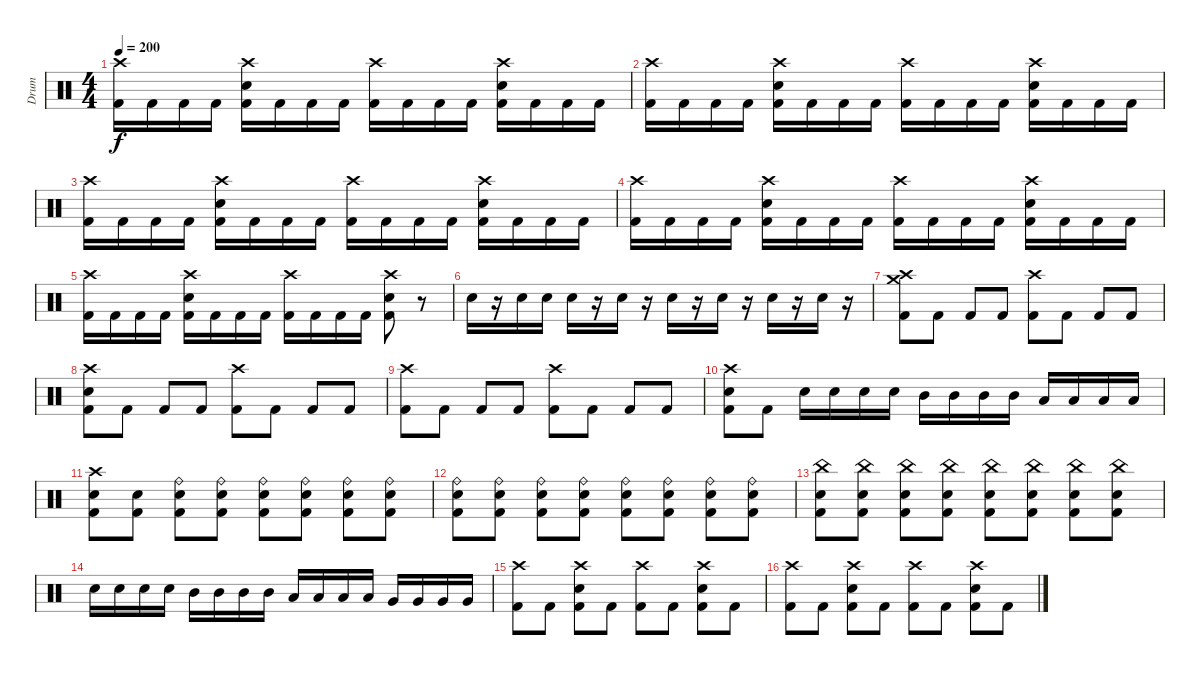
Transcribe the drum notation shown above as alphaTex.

\track ("Drum" "Drum") {instrument percussion}
\staff {score}
\articulation defaults
\ts (4 4)
\tempo 200
\clef neutral
\ks c
("Crash high (hit)" "Kick (hit) 2").16{dy f} "Kick (hit) 2".16 "Kick (hit) 2".16 "Kick (hit) 2".16 ("Crash high (hit)" "Snare (hit) 2" "Kick (hit) 2").16 "Kick (hit) 2".16 "Kick (hit) 2".16 "Kick (hit) 2".16 ("Crash high (hit)" "Kick (hit) 2").16 "Kick (hit) 2".16 "Kick (hit) 2".16 "Kick (hit) 2".16 ("Crash high (hit)" "Snare (hit) 2" "Kick (hit) 2").16 "Kick (hit) 2".16 "Kick (hit) 2".16 "Kick (hit) 2".16 |
("Crash high (hit)" "Kick (hit) 2").16 "Kick (hit) 2".16 "Kick (hit) 2".16 "Kick (hit) 2".16 ("Crash high (hit)" "Snare (hit) 2" "Kick (hit) 2").16 "Kick (hit) 2".16 "Kick (hit) 2".16 "Kick (hit) 2".16 ("Crash high (hit)" "Kick (hit) 2").16 "Kick (hit) 2".16 "Kick (hit) 2".16 "Kick (hit) 2".16 ("Crash high (hit)" "Snare (hit) 2" "Kick (hit) 2").16 "Kick (hit) 2".16 "Kick (hit) 2".16 "Kick (hit) 2".16 |
("Crash high (hit)" "Kick (hit) 2").16 "Kick (hit) 2".16 "Kick (hit) 2".16 "Kick (hit) 2".16 ("Crash high (hit)" "Snare (hit) 2" "Kick (hit) 2").16 "Kick (hit) 2".16 "Kick (hit) 2".16 "Kick (hit) 2".16 ("Crash high (hit)" "Kick (hit) 2").16 "Kick (hit) 2".16 "Kick (hit) 2".16 "Kick (hit) 2".16 ("Crash high (hit)" "Snare (hit) 2" "Kick (hit) 2").16 "Kick (hit) 2".16 "Kick (hit) 2".16 "Kick (hit) 2".16 |
("Crash high (hit)" "Kick (hit) 2").16 "Kick (hit) 2".16 "Kick (hit) 2".16 "Kick (hit) 2".16 ("Crash high (hit)" "Snare (hit) 2" "Kick (hit) 2").16 "Kick (hit) 2".16 "Kick (hit) 2".16 "Kick (hit) 2".16 ("Crash high (hit)" "Kick (hit) 2").16 "Kick (hit) 2".16 "Kick (hit) 2".16 "Kick (hit) 2".16 ("Crash high (hit)" "Snare (hit) 2" "Kick (hit) 2").16 "Kick (hit) 2".16 "Kick (hit) 2".16 "Kick (hit) 2".16 |
("Crash high (hit)" "Kick (hit) 2").16 "Kick (hit) 2".16 "Kick (hit) 2".16 "Kick (hit) 2".16 ("Crash high (hit)" "Snare (hit) 2" "Kick (hit) 2").16 "Kick (hit) 2".16 "Kick (hit) 2".16 "Kick (hit) 2".16 ("Crash high (hit)" "Kick (hit) 2").16 "Kick (hit) 2".16 "Kick (hit) 2".16 "Kick (hit) 2".16 ("Crash high (hit)" "Snare (hit) 2" "Kick (hit) 2").8 r.8 |
"Snare (hit) 2".16 r.16 "Snare (hit) 2".16 "Snare (hit) 2".16 "Snare (hit) 2".16 r.16 "Snare (hit) 2".16 r.16 "Snare (hit) 2".16 r.16 "Snare (hit) 2".16 r.16 "Snare (hit) 2".16 r.16 "Snare (hit) 2".16 r.16 |
("Crash medium (hit)" "Crash high (hit)" "Kick (hit) 2").8 "Kick (hit) 2".8 "Kick (hit) 2".8 "Kick (hit) 2".8 ("Crash high (hit)" "Kick (hit) 2").8 "Kick (hit) 2".8 "Kick (hit) 2".8 "Kick (hit) 2".8 |
("Crash high (hit)" "Snare (hit) 2" "Kick (hit) 2").8 "Kick (hit) 2".8 "Kick (hit) 2".8 "Kick (hit) 2".8 ("Crash high (hit)" "Kick (hit) 2").8 "Kick (hit) 2".8 "Kick (hit) 2".8 "Kick (hit) 2".8 |
("Crash high (hit)" "Kick (hit) 2").8 "Kick (hit) 2".8 "Kick (hit) 2".8 "Kick (hit) 2".8 ("Crash high (hit)" "Kick (hit) 2").8 "Kick (hit) 2".8 "Kick (hit) 2".8 "Kick (hit) 2".8 |
("Crash high (hit)" "Snare (hit) 2" "Kick (hit) 2").8 "Kick (hit) 2".8 "Snare (hit) 2".16 "Snare (hit) 2".16 "Snare (hit) 2".16 "Snare (hit) 2".16 "Mid Tom (hit)".16 "Mid Tom (hit)".16 "Mid Tom (hit)".16 "Mid Tom (hit)".16 "Low Tom (hit)".16 "Low Tom (hit)".16 "Low Tom (hit)".16 "Low Tom (hit)".16 |
("Crash high (hit)" "Snare (hit) 2" "Kick (hit) 2").8 ("Snare (hit) 2" "Kick (hit) 2").8 ("Ride (bell)" "Snare (hit) 2" "Kick (hit) 2").8 ("Ride (bell)" "Snare (hit) 2" "Kick (hit) 2").8 ("Ride (bell)" "Snare (hit) 2" "Kick (hit) 2").8 ("Ride (bell)" "Snare (hit) 2" "Kick (hit) 2").8 ("Ride (bell)" "Snare (hit) 2" "Kick (hit) 2").8 ("Ride (bell)" "Snare (hit) 2" "Kick (hit) 2").8 |
("Ride (bell)" "Snare (hit) 2" "Kick (hit) 2").8 ("Ride (bell)" "Snare (hit) 2" "Kick (hit) 2").8 ("Ride (bell)" "Snare (hit) 2" "Kick (hit) 2").8 ("Ride (bell)" "Snare (hit) 2" "Kick (hit) 2").8 ("Ride (bell)" "Snare (hit) 2" "Kick (hit) 2").8 ("Ride (bell)" "Snare (hit) 2" "Kick (hit) 2").8 ("Ride (bell)" "Snare (hit) 2" "Kick (hit) 2").8 ("Ride (bell)" "Snare (hit) 2" "Kick (hit) 2").8 |
("China (hit)" "Snare (hit) 2" "Kick (hit) 2").8 ("China (hit)" "Snare (hit) 2" "Kick (hit) 2").8 ("China (hit)" "Snare (hit) 2" "Kick (hit) 2").8 ("China (hit)" "Snare (hit) 2" "Kick (hit) 2").8 ("China (hit)" "Snare (hit) 2" "Kick (hit) 2").8 ("China (hit)" "Snare (hit) 2" "Kick (hit) 2").8 ("China (hit)" "Snare (hit) 2" "Kick (hit) 2").8 ("China (hit)" "Snare (hit) 2" "Kick (hit) 2").8 |
"Snare (hit) 2".16 "Snare (hit) 2".16 "Snare (hit) 2".16 "Snare (hit) 2".16 "Mid Tom (hit)".16 "Mid Tom (hit)".16 "Mid Tom (hit)".16 "Mid Tom (hit)".16 "Low Tom (hit)".16 "Low Tom (hit)".16 "Low Tom (hit)".16 "Low Tom (hit)".16 "Very Low Tom (hit)".16 "Very Low Tom (hit)".16 "Very Low Tom (hit)".16 "Very Low Tom (hit)".16 |
("Crash high (hit)" "Kick (hit) 2").8 "Kick (hit) 2".8 ("Crash high (hit)" "Snare (hit) 2" "Kick (hit) 2").8 "Kick (hit) 2".8 ("Crash high (hit)" "Kick (hit) 2").8 "Kick (hit) 2".8 ("Crash high (hit)" "Snare (hit) 2" "Kick (hit) 2").8 "Kick (hit) 2".8 |
("Crash high (hit)" "Kick (hit) 2").8 "Kick (hit) 2".8 ("Crash high (hit)" "Snare (hit) 2" "Kick (hit) 2").8 "Kick (hit) 2".8 ("Crash high (hit)" "Kick (hit) 2").8 "Kick (hit) 2".8 ("Crash high (hit)" "Snare (hit) 2" "Kick (hit) 2").8 "Kick (hit) 2".8
